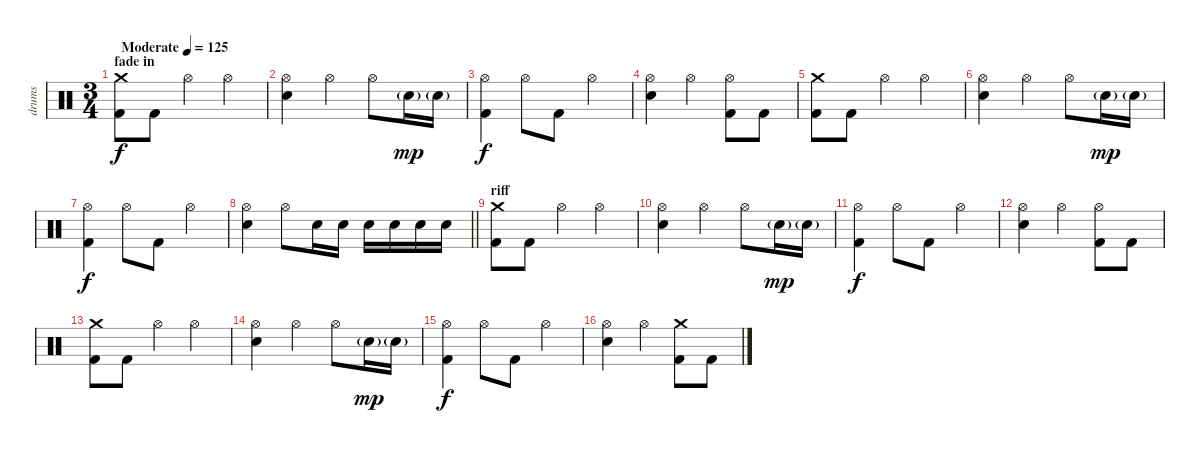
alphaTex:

\track ("drums" "drums") {instrument percussion}
\staff {score}
\articulation defaults
\ts (3 4)
\section ("" "fade in")
\tempo (125 "Moderate")
\clef neutral
\ks c
("Crash medium (hit)" "Kick (hit) 2").8{dy f} "Kick (hit) 2".8 "Hi-Hat (open)".4 "Hi-Hat (open)".4 |
("Hi-Hat (open)" "Electric Snare (hit)").4 "Hi-Hat (open)".4 "Hi-Hat (open)".8 "Electric Snare (hit)"{g}.16{dy mp} "Electric Snare (hit)"{g}.16 |
("Hi-Hat (open)" "Kick (hit) 2").4{dy f} "Hi-Hat (open)".8 "Kick (hit) 2".8 "Hi-Hat (open)".4 |
("Hi-Hat (open)" "Electric Snare (hit)").4 "Hi-Hat (open)".4 ("Hi-Hat (open)" "Kick (hit) 2").8 "Kick (hit) 2".8 |
("Crash medium (hit)" "Kick (hit) 2").8 "Kick (hit) 2".8 "Hi-Hat (open)".4 "Hi-Hat (open)".4 |
("Hi-Hat (open)" "Electric Snare (hit)").4 "Hi-Hat (open)".4 "Hi-Hat (open)".8 "Electric Snare (hit)"{g}.16{dy mp} "Electric Snare (hit)"{g}.16 |
("Hi-Hat (open)" "Kick (hit) 2").4{dy f} "Hi-Hat (open)".8 "Kick (hit) 2".8 "Hi-Hat (open)".4 |
\barLineRight lightlight
("Hi-Hat (open)" "Electric Snare (hit)").4 "Hi-Hat (open)".8 "Electric Snare (hit)".16 "Electric Snare (hit)".16 "Electric Snare (hit)".16 "Electric Snare (hit)".16 "Electric Snare (hit)".16 "Electric Snare (hit)".16 |
\section ("" "riff")
("Crash medium (hit)" "Kick (hit) 2").8 "Kick (hit) 2".8 "Hi-Hat (open)".4 "Hi-Hat (open)".4 |
("Hi-Hat (open)" "Electric Snare (hit)").4 "Hi-Hat (open)".4 "Hi-Hat (open)".8 "Electric Snare (hit)"{g}.16{dy mp} "Electric Snare (hit)"{g}.16 |
("Hi-Hat (open)" "Kick (hit) 2").4{dy f} "Hi-Hat (open)".8 "Kick (hit) 2".8 "Hi-Hat (open)".4 |
("Hi-Hat (open)" "Electric Snare (hit)").4 "Hi-Hat (open)".4 ("Hi-Hat (open)" "Kick (hit) 2").8 "Kick (hit) 2".8 |
("Crash medium (hit)" "Kick (hit) 2").8 "Kick (hit) 2".8 "Hi-Hat (open)".4 "Hi-Hat (open)".4 |
("Hi-Hat (open)" "Electric Snare (hit)").4 "Hi-Hat (open)".4 "Hi-Hat (open)".8 "Electric Snare (hit)"{g}.16{dy mp} "Electric Snare (hit)"{g}.16 |
("Hi-Hat (open)" "Kick (hit) 2").4{dy f} "Hi-Hat (open)".8 "Kick (hit) 2".8 "Hi-Hat (open)".4 |
("Hi-Hat (open)" "Electric Snare (hit)").4 "Hi-Hat (open)".4 ("Crash medium (hit)" "Kick (hit) 2").8 "Kick (hit) 2".8
